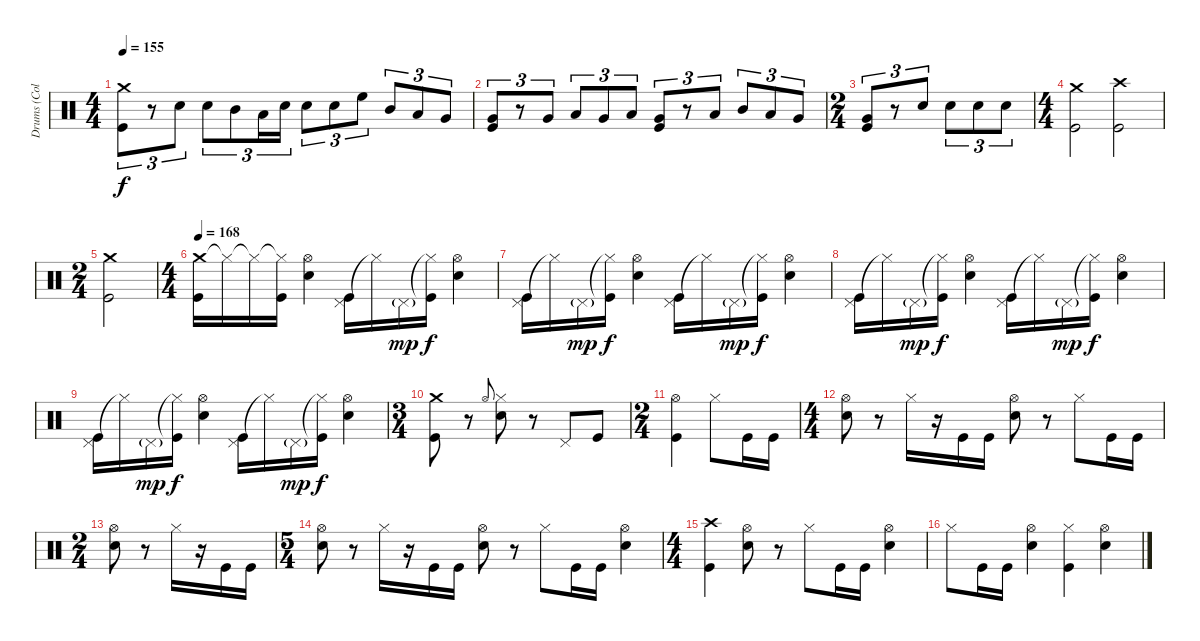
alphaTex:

\track ("Drums (Collins)" "Drums (Col") {instrument percussion}
\staff {score}
\articulation defaults
\ts (4 4)
\tempo 155
\clef neutral
\ks c
("Crash medium (hit)" "Kick (hit)").8{tu (3 2) dy f} r.8{tu (3 2)} "Snare (hit) 2".8{tu (3 2)} "Snare (hit) 2".8{tu (3 2)} "Mid Tom (hit)".8{tu (3 2)} "Low Tom (hit)".16{tu (3 2)} "Snare (hit) 2".16{tu (3 2)} "Snare (hit) 2".8{tu (3 2)} "Snare (hit) 2".8{tu (3 2)} "High Floor Tom (hit)".8{tu (3 2)} "Mid Tom (hit)".8{tu (3 2)} "Low Tom (hit)".8{tu (3 2)} "Very Low Tom (hit)".8{tu (3 2)} |
("Very Low Tom (hit)" "Kick (hit)").8{tu (3 2)} r.8{tu (3 2)} "Very Low Tom (hit)".8{tu (3 2)} "Low Tom (hit)".8{tu (3 2)} "Very Low Tom (hit)".8{tu (3 2)} "Low Floor Tom (hit)".8{tu (3 2)} ("Very Low Tom (hit)" "Kick (hit)").8{tu (3 2)} r.8{tu (3 2)} "Low Tom (hit)".8{tu (3 2)} "Mid Tom (hit)".8{tu (3 2)} "Low Tom (hit)".8{tu (3 2)} "Very Low Tom (hit)".8{tu (3 2)} |
\ts (2 4)
("Very Low Tom (hit)" "Kick (hit)").8{tu (3 2)} r.8{tu (3 2)} "Snare (hit) 2".8{tu (3 2)} "Snare (hit) 2".8{tu (3 2)} "Snare (hit) 2".8{tu (3 2)} "Snare (hit) 2".8{tu (3 2)} |
\ts (4 4)
("Crash medium (hit)" "Kick (hit)").2 ("Crash high (hit)" "Kick (hit)").2 |
\ts (2 4)
("Crash medium (hit)" "Kick (hit)").2 |
\ts (4 4)
\tempo 168
("Crash medium (hit)" "Kick (hit)").16 "Hi-Hat (closed)"{t}.16 "Hi-Hat (closed)"{t}.16 ("Hi-Hat (closed)"{t} "Kick (hit)").16 ("Hi-Hat (open)" "Snare (hit) 2").4 ("Pedal Hi-Hat (hit)" "Kick (hit)").16 "Hi-Hat (closed)"{t}.16 "Pedal Hi-Hat (hit)"{g}.16{dy mp} ("Hi-Hat (closed)"{t} "Kick (hit)").16{dy f} ("Hi-Hat (open)" "Snare (hit) 2").4 |
("Pedal Hi-Hat (hit)" "Kick (hit)").16 "Hi-Hat (closed)"{t}.16 "Pedal Hi-Hat (hit)"{g}.16{dy mp} ("Hi-Hat (closed)"{t} "Kick (hit)").16{dy f} ("Hi-Hat (open)" "Snare (hit) 2").4 ("Pedal Hi-Hat (hit)" "Kick (hit)").16 "Hi-Hat (closed)"{t}.16 "Pedal Hi-Hat (hit)"{g}.16{dy mp} ("Hi-Hat (closed)"{t} "Kick (hit)").16{dy f} ("Hi-Hat (open)" "Snare (hit) 2").4 |
("Pedal Hi-Hat (hit)" "Kick (hit)").16 "Hi-Hat (closed)"{t}.16 "Pedal Hi-Hat (hit)"{g}.16{dy mp} ("Hi-Hat (closed)"{t} "Kick (hit)").16{dy f} ("Hi-Hat (open)" "Snare (hit) 2").4 ("Pedal Hi-Hat (hit)" "Kick (hit)").16 "Hi-Hat (closed)"{t}.16 "Pedal Hi-Hat (hit)"{g}.16{dy mp} ("Hi-Hat (closed)"{t} "Kick (hit)").16{dy f} ("Hi-Hat (open)" "Snare (hit) 2").4 |
("Pedal Hi-Hat (hit)" "Kick (hit)").16 "Hi-Hat (closed)"{t}.16 "Pedal Hi-Hat (hit)"{g}.16{dy mp} ("Hi-Hat (closed)"{t} "Kick (hit)").16{dy f} ("Hi-Hat (open)" "Snare (hit) 2").4 ("Pedal Hi-Hat (hit)" "Kick (hit)").16 "Hi-Hat (closed)"{t}.16 "Pedal Hi-Hat (hit)"{g}.16{dy mp} ("Hi-Hat (closed)"{t} "Kick (hit)").16{dy f} ("Hi-Hat (open)" "Snare (hit) 2").4 |
\ts (3 4)
("Crash medium (hit)" "Kick (hit)").8 r.8 "Hi-Hat (open)".8{gr onbeat} ("Hi-Hat (closed)" "Snare (hit) 2").8 r.8 "Pedal Hi-Hat (hit)".8 "Kick (hit)".8 |
\ts (2 4)
("Hi-Hat (open)" "Kick (hit)").4 "Hi-Hat (closed)".8 "Kick (hit)".16 "Kick (hit)".16 |
\ts (4 4)
("Hi-Hat (open)" "Snare (hit) 2").8 r.8 "Hi-Hat (closed)".16 r.16 "Kick (hit)".16 "Kick (hit)".16 ("Hi-Hat (open)" "Snare (hit) 2").8 r.8 "Hi-Hat (closed)".8 "Kick (hit)".16 "Kick (hit)".16 |
\ts (2 4)
("Hi-Hat (open)" "Snare (hit) 2").8 r.8 "Hi-Hat (closed)".16 r.16 "Kick (hit)".16 "Kick (hit)".16 |
\ts (5 4)
("Hi-Hat (open)" "Snare (hit) 2").8 r.8 "Hi-Hat (closed)".16 r.16 "Kick (hit)".16 "Kick (hit)".16 ("Hi-Hat (open)" "Snare (hit) 2").8 r.8 "Hi-Hat (closed)".8 "Kick (hit)".16 "Kick (hit)".16 ("Hi-Hat (open)" "Snare (hit) 2").4 |
\ts (4 4)
("Crash high (hit)" "Kick (hit)").4 ("Hi-Hat (open)" "Snare (hit) 2").8 r.8 "Hi-Hat (closed)".8 "Kick (hit)".16 "Kick (hit)".16 ("Hi-Hat (open)" "Snare (hit) 2").4 |
"Hi-Hat (closed)".8 "Kick (hit)".16 "Kick (hit)".16 ("Hi-Hat (open)" "Snare (hit) 2").4 ("Hi-Hat (closed)" "Kick (hit)").4 ("Hi-Hat (open)" "Snare (hit) 2").4
